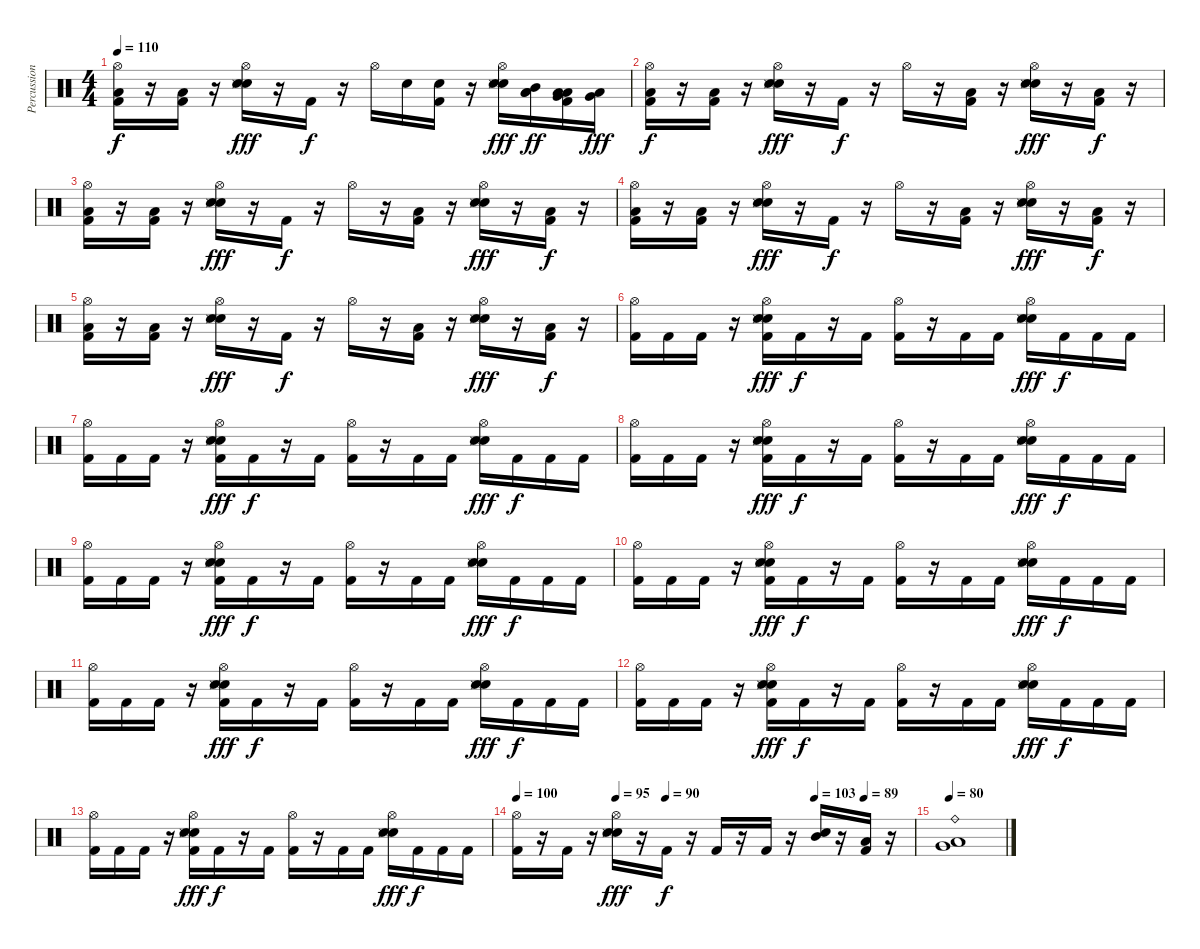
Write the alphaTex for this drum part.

\track ("Percussion" "Percussion") {instrument percussion}
\staff {score}
\articulation defaults
\ts (4 4)
\tempo 110
\clef neutral
\ks c
("Hi-Hat (open)" "Low Floor Tom (hit)" "Kick (hit) 2").16{dy f} r.16 ("Low Floor Tom (hit)" "Kick (hit) 2").16 r.16 ("Hi-Hat (open)" "Electric Snare (hit)" "Electric Snare (hit)" "Snare (side stick) 3").16{dy fff} r.16 "Kick (hit) 2".16{dy f} r.16 "Hi-Hat (open)".16 "Electric Snare (hit)".16 ("Electric Snare (hit)" "Kick (hit) 2").16 r.16 ("Hi-Hat (open)" "Electric Snare (hit)" "Electric Snare (hit)" "Snare (side stick) 3").16{dy fff} ("Mid Tom (hit)" "Low Tom (hit)" "Low Tom (hit)").16{dy ff} ("Low Tom (hit)" "Very Low Tom (hit)" "Low Floor Tom (hit)" "Kick (hit) 2").16 ("Very Low Tom (hit)" "Low Floor Tom (hit)").16{dy fff} |
("Hi-Hat (open)" "Low Floor Tom (hit)" "Kick (hit) 2").16{dy f} r.16 ("Low Floor Tom (hit)" "Kick (hit) 2").16 r.16 ("Hi-Hat (open)" "Electric Snare (hit)" "Electric Snare (hit)" "Snare (side stick) 3").16{dy fff} r.16 "Kick (hit) 2".16{dy f} r.16 "Hi-Hat (open)".16 r.16 ("Low Floor Tom (hit)" "Kick (hit) 2").16 r.16 ("Hi-Hat (open)" "Electric Snare (hit)" "Electric Snare (hit)" "Snare (side stick) 3").16{dy fff} r.16 ("Low Floor Tom (hit)" "Kick (hit) 2").16{dy f} r.16 |
("Hi-Hat (open)" "Low Floor Tom (hit)" "Kick (hit) 2").16 r.16 ("Low Floor Tom (hit)" "Kick (hit) 2").16 r.16 ("Hi-Hat (open)" "Electric Snare (hit)" "Electric Snare (hit)" "Snare (side stick) 3").16{dy fff} r.16 "Kick (hit) 2".16{dy f} r.16 "Hi-Hat (open)".16 r.16 ("Low Floor Tom (hit)" "Kick (hit) 2").16 r.16 ("Hi-Hat (open)" "Electric Snare (hit)" "Electric Snare (hit)" "Snare (side stick) 3").16{dy fff} r.16 ("Low Floor Tom (hit)" "Kick (hit) 2").16{dy f} r.16 |
("Hi-Hat (open)" "Low Floor Tom (hit)" "Kick (hit) 2").16 r.16 ("Low Floor Tom (hit)" "Kick (hit) 2").16 r.16 ("Hi-Hat (open)" "Electric Snare (hit)" "Electric Snare (hit)" "Snare (side stick) 3").16{dy fff} r.16 "Kick (hit) 2".16{dy f} r.16 "Hi-Hat (open)".16 r.16 ("Low Floor Tom (hit)" "Kick (hit) 2").16 r.16 ("Hi-Hat (open)" "Electric Snare (hit)" "Electric Snare (hit)" "Snare (side stick) 3").16{dy fff} r.16 ("Low Floor Tom (hit)" "Kick (hit) 2").16{dy f} r.16 |
("Hi-Hat (open)" "Low Floor Tom (hit)" "Kick (hit) 2").16 r.16 ("Low Floor Tom (hit)" "Kick (hit) 2").16 r.16 ("Hi-Hat (open)" "Electric Snare (hit)" "Electric Snare (hit)" "Snare (side stick) 3").16{dy fff} r.16 "Kick (hit) 2".16{dy f} r.16 "Hi-Hat (open)".16 r.16 ("Low Floor Tom (hit)" "Kick (hit) 2").16 r.16 ("Hi-Hat (open)" "Electric Snare (hit)" "Electric Snare (hit)" "Snare (side stick) 3").16{dy fff} r.16 ("Low Floor Tom (hit)" "Kick (hit) 2").16{dy f} r.16 |
("Hi-Hat (open)" "Kick (hit) 2").16 "Kick (hit) 2".16 "Kick (hit) 2".16 r.16 ("Hi-Hat (open)" "Electric Snare (hit)" "Electric Snare (hit)" "Snare (side stick) 3" "Kick (hit) 2").16{dy fff} "Kick (hit) 2".16{dy f} r.16 "Kick (hit) 2".16 ("Hi-Hat (open)" "Kick (hit) 2").16 r.16 "Kick (hit) 2".16 "Kick (hit) 2".16 ("Hi-Hat (open)" "Electric Snare (hit)" "Electric Snare (hit)" "Snare (side stick) 3").16{dy fff} "Kick (hit) 2".16{dy f} "Kick (hit) 2".16 "Kick (hit) 2".16 |
("Hi-Hat (open)" "Kick (hit) 2").16 "Kick (hit) 2".16 "Kick (hit) 2".16 r.16 ("Hi-Hat (open)" "Electric Snare (hit)" "Electric Snare (hit)" "Snare (side stick) 3" "Kick (hit) 2").16{dy fff} "Kick (hit) 2".16{dy f} r.16 "Kick (hit) 2".16 ("Hi-Hat (open)" "Kick (hit) 2").16 r.16 "Kick (hit) 2".16 "Kick (hit) 2".16 ("Hi-Hat (open)" "Electric Snare (hit)" "Electric Snare (hit)" "Snare (side stick) 3").16{dy fff} "Kick (hit) 2".16{dy f} "Kick (hit) 2".16 "Kick (hit) 2".16 |
("Hi-Hat (open)" "Kick (hit) 2").16 "Kick (hit) 2".16 "Kick (hit) 2".16 r.16 ("Hi-Hat (open)" "Electric Snare (hit)" "Electric Snare (hit)" "Snare (side stick) 3" "Kick (hit) 2").16{dy fff} "Kick (hit) 2".16{dy f} r.16 "Kick (hit) 2".16 ("Hi-Hat (open)" "Kick (hit) 2").16 r.16 "Kick (hit) 2".16 "Kick (hit) 2".16 ("Hi-Hat (open)" "Electric Snare (hit)" "Electric Snare (hit)" "Snare (side stick) 3").16{dy fff} "Kick (hit) 2".16{dy f} "Kick (hit) 2".16 "Kick (hit) 2".16 |
("Hi-Hat (open)" "Kick (hit) 2").16 "Kick (hit) 2".16 "Kick (hit) 2".16 r.16 ("Hi-Hat (open)" "Electric Snare (hit)" "Electric Snare (hit)" "Snare (side stick) 3" "Kick (hit) 2").16{dy fff} "Kick (hit) 2".16{dy f} r.16 "Kick (hit) 2".16 ("Hi-Hat (open)" "Kick (hit) 2").16 r.16 "Kick (hit) 2".16 "Kick (hit) 2".16 ("Hi-Hat (open)" "Electric Snare (hit)" "Electric Snare (hit)" "Snare (side stick) 3").16{dy fff} "Kick (hit) 2".16{dy f} "Kick (hit) 2".16 "Kick (hit) 2".16 |
("Hi-Hat (open)" "Kick (hit) 2").16 "Kick (hit) 2".16 "Kick (hit) 2".16 r.16 ("Hi-Hat (open)" "Electric Snare (hit)" "Electric Snare (hit)" "Snare (side stick) 3" "Kick (hit) 2").16{dy fff} "Kick (hit) 2".16{dy f} r.16 "Kick (hit) 2".16 ("Hi-Hat (open)" "Kick (hit) 2").16 r.16 "Kick (hit) 2".16 "Kick (hit) 2".16 ("Hi-Hat (open)" "Electric Snare (hit)" "Electric Snare (hit)" "Snare (side stick) 3").16{dy fff} "Kick (hit) 2".16{dy f} "Kick (hit) 2".16 "Kick (hit) 2".16 |
("Hi-Hat (open)" "Kick (hit) 2").16 "Kick (hit) 2".16 "Kick (hit) 2".16 r.16 ("Hi-Hat (open)" "Electric Snare (hit)" "Electric Snare (hit)" "Snare (side stick) 3" "Kick (hit) 2").16{dy fff} "Kick (hit) 2".16{dy f} r.16 "Kick (hit) 2".16 ("Hi-Hat (open)" "Kick (hit) 2").16 r.16 "Kick (hit) 2".16 "Kick (hit) 2".16 ("Hi-Hat (open)" "Electric Snare (hit)" "Electric Snare (hit)" "Snare (side stick) 3").16{dy fff} "Kick (hit) 2".16{dy f} "Kick (hit) 2".16 "Kick (hit) 2".16 |
("Hi-Hat (open)" "Kick (hit) 2").16 "Kick (hit) 2".16 "Kick (hit) 2".16 r.16 ("Hi-Hat (open)" "Electric Snare (hit)" "Electric Snare (hit)" "Snare (side stick) 3" "Kick (hit) 2").16{dy fff} "Kick (hit) 2".16{dy f} r.16 "Kick (hit) 2".16 ("Hi-Hat (open)" "Kick (hit) 2").16 r.16 "Kick (hit) 2".16 "Kick (hit) 2".16 ("Hi-Hat (open)" "Electric Snare (hit)" "Electric Snare (hit)" "Snare (side stick) 3").16{dy fff} "Kick (hit) 2".16{dy f} "Kick (hit) 2".16 "Kick (hit) 2".16 |
("Hi-Hat (open)" "Kick (hit) 2").16 "Kick (hit) 2".16 "Kick (hit) 2".16 r.16 ("Hi-Hat (open)" "Electric Snare (hit)" "Electric Snare (hit)" "Snare (side stick) 3" "Kick (hit) 2").16{dy fff} "Kick (hit) 2".16{dy f} r.16 "Kick (hit) 2".16 ("Hi-Hat (open)" "Kick (hit) 2").16 r.16 "Kick (hit) 2".16 "Kick (hit) 2".16 ("Hi-Hat (open)" "Electric Snare (hit)" "Electric Snare (hit)" "Snare (side stick) 3").16{dy fff} "Kick (hit) 2".16{dy f} "Kick (hit) 2".16 "Kick (hit) 2".16 |
\tempo 100
\tempo (95 0.25)
\tempo (90 0.375)
\tempo (103 0.75)
\tempo (89 0.875)
("Hi-Hat (open)" "Kick (hit) 2").16 r.16 "Kick (hit) 2".16 r.16 ("Hi-Hat (open)" "Electric Snare (hit)" "Electric Snare (hit)" "Snare (side stick) 3").16{dy fff} r.16 "Kick (hit) 2".16{dy f} r.16 "Kick (hit) 2".16 r.16 "Kick (hit) 2".16 r.16 ("Mid Tom (hit)" "Electric Snare (hit)").16 r.16 ("Low Tom (hit)" "Kick (hit) 2").16 r.16 |
\tempo 80
("Ride (bell)" "Very Low Tom (hit)" "Low Floor Tom (hit)").1
